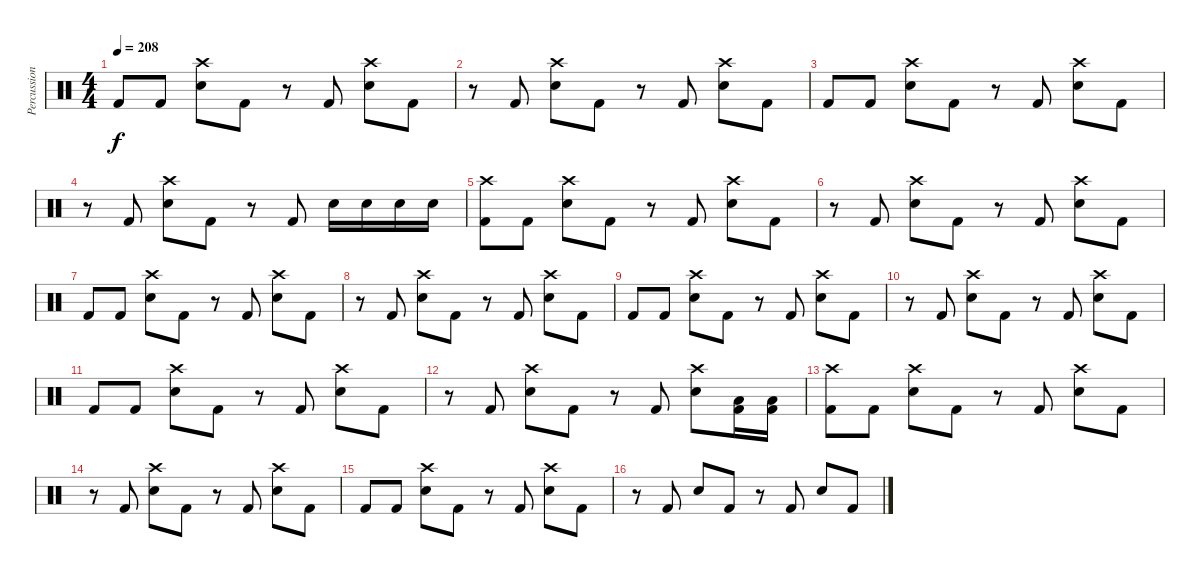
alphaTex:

\track ("Percussion" "Percussion") {instrument percussion}
\staff {score}
\articulation defaults
\ts (4 4)
\tempo 208
\clef neutral
\ks c "Kick (hit) 2".8{dy f} "Kick (hit) 2".8
("Crash high (hit)" "Electric Snare (hit)").8 "Kick (hit) 2".8 r.8 "Kick (hit) 2".8 ("Crash high (hit)" "Electric Snare (hit)").8 "Kick (hit) 2".8 |
r.8 "Kick (hit) 2".8 ("Crash high (hit)" "Electric Snare (hit)").8 "Kick (hit) 2".8 r.8 "Kick (hit) 2".8 ("Crash high (hit)" "Electric Snare (hit)").8 "Kick (hit) 2".8 |
"Kick (hit) 2".8 "Kick (hit) 2".8 ("Crash high (hit)" "Electric Snare (hit)").8 "Kick (hit) 2".8 r.8 "Kick (hit) 2".8 ("Crash high (hit)" "Electric Snare (hit)").8 "Kick (hit) 2".8 |
r.8 "Kick (hit) 2".8 ("Crash high (hit)" "Electric Snare (hit)").8 "Kick (hit) 2".8 r.8 "Kick (hit) 2".8 "Electric Snare (hit)".16 "Electric Snare (hit)".16 "Electric Snare (hit)".16 "Electric Snare (hit)".16 |
("Crash high (hit)" "Kick (hit) 2").8 "Kick (hit) 2".8 ("Crash high (hit)" "Electric Snare (hit)").8 "Kick (hit) 2".8 r.8 "Kick (hit) 2".8 ("Crash high (hit)" "Electric Snare (hit)").8 "Kick (hit) 2".8 |
r.8 "Kick (hit) 2".8 ("Crash high (hit)" "Electric Snare (hit)").8 "Kick (hit) 2".8 r.8 "Kick (hit) 2".8 ("Crash high (hit)" "Electric Snare (hit)").8 "Kick (hit) 2".8 |
"Kick (hit) 2".8 "Kick (hit) 2".8 ("Crash high (hit)" "Electric Snare (hit)").8 "Kick (hit) 2".8 r.8 "Kick (hit) 2".8 ("Crash high (hit)" "Electric Snare (hit)").8 "Kick (hit) 2".8 |
r.8 "Kick (hit) 2".8 ("Crash high (hit)" "Electric Snare (hit)").8 "Kick (hit) 2".8 r.8 "Kick (hit) 2".8 ("Crash high (hit)" "Electric Snare (hit)").8 "Kick (hit) 2".8 |
"Kick (hit) 2".8 "Kick (hit) 2".8 ("Crash high (hit)" "Electric Snare (hit)").8 "Kick (hit) 2".8 r.8 "Kick (hit) 2".8 ("Crash high (hit)" "Electric Snare (hit)").8 "Kick (hit) 2".8 |
r.8 "Kick (hit) 2".8 ("Crash high (hit)" "Electric Snare (hit)").8 "Kick (hit) 2".8 r.8 "Kick (hit) 2".8 ("Crash high (hit)" "Electric Snare (hit)").8 "Kick (hit) 2".8 |
"Kick (hit) 2".8 "Kick (hit) 2".8 ("Crash high (hit)" "Electric Snare (hit)").8 "Kick (hit) 2".8 r.8 "Kick (hit) 2".8 ("Crash high (hit)" "Electric Snare (hit)").8 "Kick (hit) 2".8 |
r.8 "Kick (hit) 2".8 ("Crash high (hit)" "Electric Snare (hit)").8 "Kick (hit) 2".8 r.8 "Kick (hit) 2".8 ("Crash high (hit)" "Electric Snare (hit)").8 ("Low Tom (hit)" "Kick (hit) 2").16 ("Low Tom (hit)" "Kick (hit) 2").16 |
("Crash high (hit)" "Kick (hit) 2").8 "Kick (hit) 2".8 ("Crash high (hit)" "Electric Snare (hit)").8 "Kick (hit) 2".8 r.8 "Kick (hit) 2".8 ("Crash high (hit)" "Electric Snare (hit)").8 "Kick (hit) 2".8 |
r.8 "Kick (hit) 2".8 ("Crash high (hit)" "Electric Snare (hit)").8 "Kick (hit) 2".8 r.8 "Kick (hit) 2".8 ("Crash high (hit)" "Electric Snare (hit)").8 "Kick (hit) 2".8 |
"Kick (hit) 2".8 "Kick (hit) 2".8 ("Crash high (hit)" "Electric Snare (hit)").8 "Kick (hit) 2".8 r.8 "Kick (hit) 2".8 ("Crash high (hit)" "Electric Snare (hit)").8 "Kick (hit) 2".8 |
r.8 "Kick (hit) 2".8 "Electric Snare (hit)".8 "Kick (hit) 2".8 r.8 "Kick (hit) 2".8 "Electric Snare (hit)".8 "Kick (hit) 2".8
